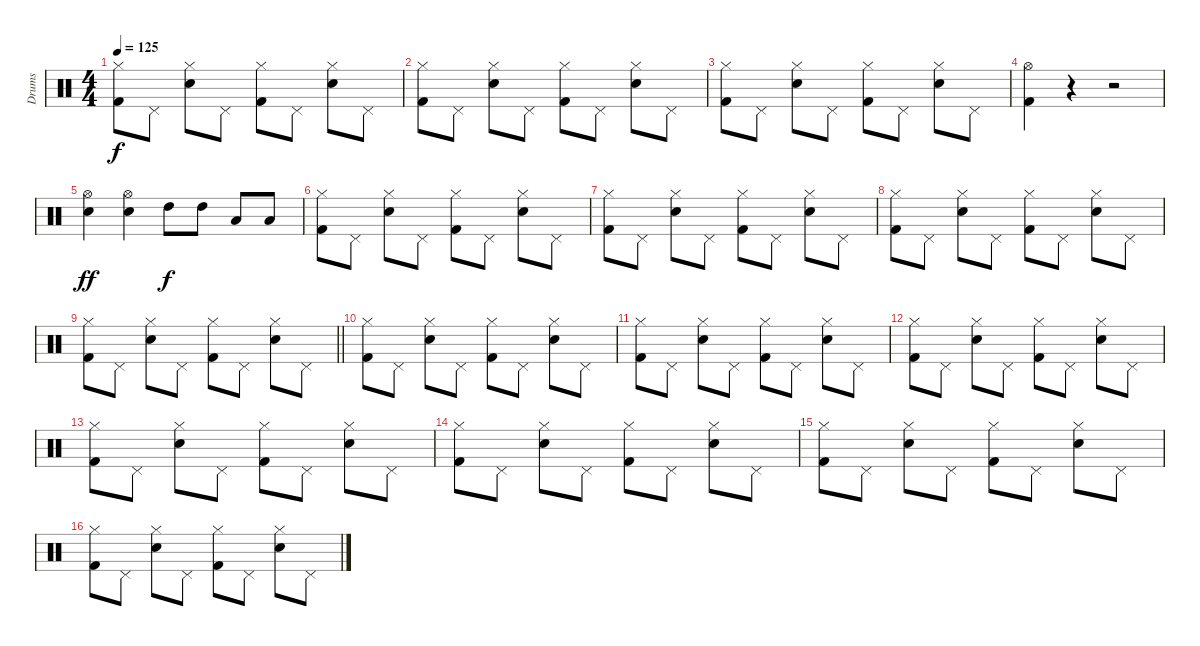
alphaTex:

\track ("Drums" "Drums") {instrument percussion}
\staff {score}
\articulation defaults
\ts (4 4)
\tempo 125
\clef neutral
\ks c
("Hi-Hat (closed)" "Kick (hit) 2").8{dy f} "Pedal Hi-Hat (hit)".8 ("Hi-Hat (closed)" "Electric Snare (hit)").8 "Pedal Hi-Hat (hit)".8 ("Hi-Hat (closed)" "Kick (hit) 2").8 "Pedal Hi-Hat (hit)".8 ("Hi-Hat (closed)" "Electric Snare (hit)").8 "Pedal Hi-Hat (hit)".8 |
("Hi-Hat (closed)" "Kick (hit) 2").8 "Pedal Hi-Hat (hit)".8 ("Hi-Hat (closed)" "Electric Snare (hit)").8 "Pedal Hi-Hat (hit)".8 ("Hi-Hat (closed)" "Kick (hit) 2").8 "Pedal Hi-Hat (hit)".8 ("Hi-Hat (closed)" "Electric Snare (hit)").8 "Pedal Hi-Hat (hit)".8 |
("Hi-Hat (closed)" "Kick (hit) 2").8 "Pedal Hi-Hat (hit)".8 ("Hi-Hat (closed)" "Electric Snare (hit)").8 "Pedal Hi-Hat (hit)".8 ("Hi-Hat (closed)" "Kick (hit) 2").8 "Pedal Hi-Hat (hit)".8 ("Hi-Hat (closed)" "Electric Snare (hit)").8 "Pedal Hi-Hat (hit)".8 |
("Hi-Hat (open)" "Kick (hit) 2").4 r.4 r.2 |
("Hi-Hat (open)" "Snare (hit) 2").4{dy ff} ("Hi-Hat (open)" "Snare (hit) 2").4 "High Tom (hit)".8{dy f} "High Tom (hit)".8 "Low Tom (hit)".8 "Low Tom (hit)".8 |
("Hi-Hat (closed)" "Kick (hit) 2").8 "Pedal Hi-Hat (hit)".8 ("Hi-Hat (closed)" "Electric Snare (hit)").8 "Pedal Hi-Hat (hit)".8 ("Hi-Hat (closed)" "Kick (hit) 2").8 "Pedal Hi-Hat (hit)".8 ("Hi-Hat (closed)" "Electric Snare (hit)").8 "Pedal Hi-Hat (hit)".8 |
("Hi-Hat (closed)" "Kick (hit) 2").8 "Pedal Hi-Hat (hit)".8 ("Hi-Hat (closed)" "Electric Snare (hit)").8 "Pedal Hi-Hat (hit)".8 ("Hi-Hat (closed)" "Kick (hit) 2").8 "Pedal Hi-Hat (hit)".8 ("Hi-Hat (closed)" "Electric Snare (hit)").8 "Pedal Hi-Hat (hit)".8 |
("Hi-Hat (closed)" "Kick (hit) 2").8 "Pedal Hi-Hat (hit)".8 ("Hi-Hat (closed)" "Electric Snare (hit)").8 "Pedal Hi-Hat (hit)".8 ("Hi-Hat (closed)" "Kick (hit) 2").8 "Pedal Hi-Hat (hit)".8 ("Hi-Hat (closed)" "Electric Snare (hit)").8 "Pedal Hi-Hat (hit)".8 |
\barLineRight lightlight
("Hi-Hat (closed)" "Kick (hit) 2").8 "Pedal Hi-Hat (hit)".8 ("Hi-Hat (closed)" "Electric Snare (hit)").8 "Pedal Hi-Hat (hit)".8 ("Hi-Hat (closed)" "Kick (hit) 2").8 "Pedal Hi-Hat (hit)".8 ("Hi-Hat (closed)" "Electric Snare (hit)").8 "Pedal Hi-Hat (hit)".8 |
("Hi-Hat (closed)" "Kick (hit) 2").8 "Pedal Hi-Hat (hit)".8 ("Hi-Hat (closed)" "Electric Snare (hit)").8 "Pedal Hi-Hat (hit)".8 ("Hi-Hat (closed)" "Kick (hit) 2").8 "Pedal Hi-Hat (hit)".8 ("Hi-Hat (closed)" "Electric Snare (hit)").8 "Pedal Hi-Hat (hit)".8 |
("Hi-Hat (closed)" "Kick (hit) 2").8 "Pedal Hi-Hat (hit)".8 ("Hi-Hat (closed)" "Electric Snare (hit)").8 "Pedal Hi-Hat (hit)".8 ("Hi-Hat (closed)" "Kick (hit) 2").8 "Pedal Hi-Hat (hit)".8 ("Hi-Hat (closed)" "Electric Snare (hit)").8 "Pedal Hi-Hat (hit)".8 |
("Hi-Hat (closed)" "Kick (hit) 2").8 "Pedal Hi-Hat (hit)".8 ("Hi-Hat (closed)" "Electric Snare (hit)").8 "Pedal Hi-Hat (hit)".8 ("Hi-Hat (closed)" "Kick (hit) 2").8 "Pedal Hi-Hat (hit)".8 ("Hi-Hat (closed)" "Electric Snare (hit)").8 "Pedal Hi-Hat (hit)".8 |
("Hi-Hat (closed)" "Kick (hit) 2").8 "Pedal Hi-Hat (hit)".8 ("Hi-Hat (closed)" "Electric Snare (hit)").8 "Pedal Hi-Hat (hit)".8 ("Hi-Hat (closed)" "Kick (hit) 2").8 "Pedal Hi-Hat (hit)".8 ("Hi-Hat (closed)" "Electric Snare (hit)").8 "Pedal Hi-Hat (hit)".8 |
("Hi-Hat (closed)" "Kick (hit) 2").8 "Pedal Hi-Hat (hit)".8 ("Hi-Hat (closed)" "Electric Snare (hit)").8 "Pedal Hi-Hat (hit)".8 ("Hi-Hat (closed)" "Kick (hit) 2").8 "Pedal Hi-Hat (hit)".8 ("Hi-Hat (closed)" "Electric Snare (hit)").8 "Pedal Hi-Hat (hit)".8 |
("Hi-Hat (closed)" "Kick (hit) 2").8 "Pedal Hi-Hat (hit)".8 ("Hi-Hat (closed)" "Electric Snare (hit)").8 "Pedal Hi-Hat (hit)".8 ("Hi-Hat (closed)" "Kick (hit) 2").8 "Pedal Hi-Hat (hit)".8 ("Hi-Hat (closed)" "Electric Snare (hit)").8 "Pedal Hi-Hat (hit)".8 |
("Hi-Hat (closed)" "Kick (hit) 2").8 "Pedal Hi-Hat (hit)".8 ("Hi-Hat (closed)" "Electric Snare (hit)").8 "Pedal Hi-Hat (hit)".8 ("Hi-Hat (closed)" "Kick (hit) 2").8 "Pedal Hi-Hat (hit)".8 ("Hi-Hat (closed)" "Electric Snare (hit)").8 "Pedal Hi-Hat (hit)".8
